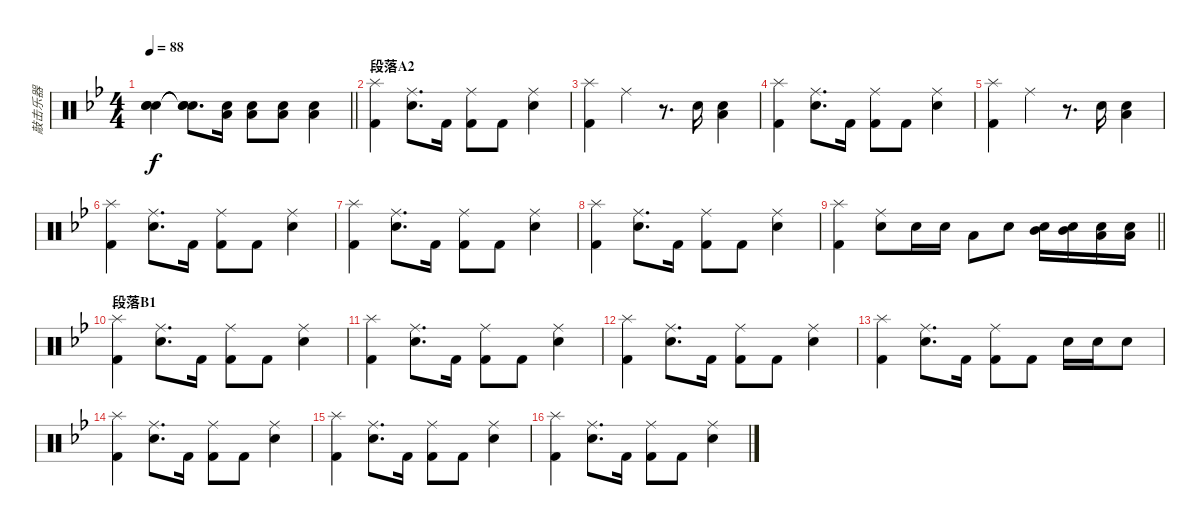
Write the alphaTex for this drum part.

\track ("敲击乐器" "敲击乐器") {instrument percussion}
\staff {score}
\articulation defaults
\ts (4 4)
\tempo 88
\clef neutral
\barLineRight lightlight
\ks bb
("Snare (hit)"{t} "Snare (hit)"{t} "Snare (hit)"{t}).4{dy f} ("Snare (hit)"{t} "Snare (hit)"{t} "Snare (hit)"{t}).8{d} ("Snare (hit) 2" "Low Floor Tom (hit)").16 ("Snare (hit) 2" "Low Floor Tom (hit)").8 ("Snare (hit) 2" "Low Floor Tom (hit)").8 ("Snare (hit) 2" "Low Floor Tom (hit)").4 |
\section ("" "段落A2")
("Splash (hit)" "Kick (hit) 2").4 ("Ride (middle)" "Snare (hit) 2").8{d} "Kick (hit) 2".16 ("Ride (middle)" "Kick (hit) 2").8 "Kick (hit) 2".8 ("Ride (middle)" "Snare (hit) 2").4 |
("Splash (hit)" "Kick (hit) 2").4 "Ride (middle)".4 r.8{d} "Snare (hit) 2".16 ("Snare (hit) 2" "Low Floor Tom (hit)").4 |
("Splash (hit)" "Kick (hit) 2").4 ("Ride (middle)" "Snare (hit) 2").8{d} "Kick (hit) 2".16 ("Ride (middle)" "Kick (hit) 2").8 "Kick (hit) 2".8 ("Ride (middle)" "Snare (hit) 2").4 |
("Splash (hit)" "Kick (hit) 2").4 "Ride (middle)".4 r.8{d} "Snare (hit) 2".16 ("Snare (hit) 2" "Low Floor Tom (hit)").4 |
("Splash (hit)" "Kick (hit) 2").4 ("Ride (middle)" "Snare (hit) 2").8{d} "Kick (hit) 2".16 ("Ride (middle)" "Kick (hit) 2").8 "Kick (hit) 2".8 ("Ride (middle)" "Snare (hit) 2").4 |
("Splash (hit)" "Kick (hit) 2").4 ("Ride (middle)" "Snare (hit) 2").8{d} "Kick (hit) 2".16 ("Ride (middle)" "Kick (hit) 2").8 "Kick (hit) 2".8 ("Ride (middle)" "Snare (hit) 2").4 |
("Splash (hit)" "Kick (hit) 2").4 ("Ride (middle)" "Snare (hit) 2").8{d} "Kick (hit) 2".16 ("Ride (middle)" "Kick (hit) 2").8 "Kick (hit) 2".8 ("Ride (middle)" "Snare (hit) 2").4 |
\barLineRight lightlight
("Splash (hit)" "Kick (hit) 2").4 ("Ride (middle)" "Snare (hit) 2").8 "Snare (hit) 2".16 "Snare (hit) 2".16 "Low Tom (hit)".8 "Snare (hit) 2".8 ("Mid Tom (hit)" "Snare (hit) 2").16 ("Mid Tom (hit)" "Snare (hit) 2").16 ("Low Tom (hit)" "Snare (hit) 2").16 ("Low Tom (hit)" "Snare (hit) 2").16 |
\section ("" "段落B1")
("Splash (hit)" "Kick (hit) 2").4 ("Ride (middle)" "Snare (hit) 2").8{d} "Kick (hit) 2".16 ("Ride (middle)" "Kick (hit) 2").8 "Kick (hit) 2".8 ("Ride (middle)" "Snare (hit) 2").4 |
("Splash (hit)" "Kick (hit) 2").4 ("Ride (middle)" "Snare (hit) 2").8{d} "Kick (hit) 2".16 ("Ride (middle)" "Kick (hit) 2").8 "Kick (hit) 2".8 ("Ride (middle)" "Snare (hit) 2").4 |
("Splash (hit)" "Kick (hit) 2").4 ("Ride (middle)" "Snare (hit) 2").8{d} "Kick (hit) 2".16 ("Ride (middle)" "Kick (hit) 2").8 "Kick (hit) 2".8 ("Ride (middle)" "Snare (hit) 2").4 |
("Splash (hit)" "Kick (hit) 2").4 ("Ride (middle)" "Snare (hit) 2").8{d} "Kick (hit) 2".16 ("Ride (middle)" "Kick (hit) 2").8 "Kick (hit) 2".8 "Snare (hit) 2".16 "Snare (hit) 2".16 "Snare (hit) 2".8 |
("Splash (hit)" "Kick (hit) 2").4 ("Ride (middle)" "Snare (hit) 2").8{d} "Kick (hit) 2".16 ("Ride (middle)" "Kick (hit) 2").8 "Kick (hit) 2".8 ("Ride (middle)" "Snare (hit) 2").4 |
("Splash (hit)" "Kick (hit) 2").4 ("Ride (middle)" "Snare (hit) 2").8{d} "Kick (hit) 2".16 ("Ride (middle)" "Kick (hit) 2").8 "Kick (hit) 2".8 ("Ride (middle)" "Snare (hit) 2").4 |
("Splash (hit)" "Kick (hit) 2").4 ("Ride (middle)" "Snare (hit) 2").8{d} "Kick (hit) 2".16 ("Ride (middle)" "Kick (hit) 2").8 "Kick (hit) 2".8 ("Ride (middle)" "Snare (hit) 2").4
